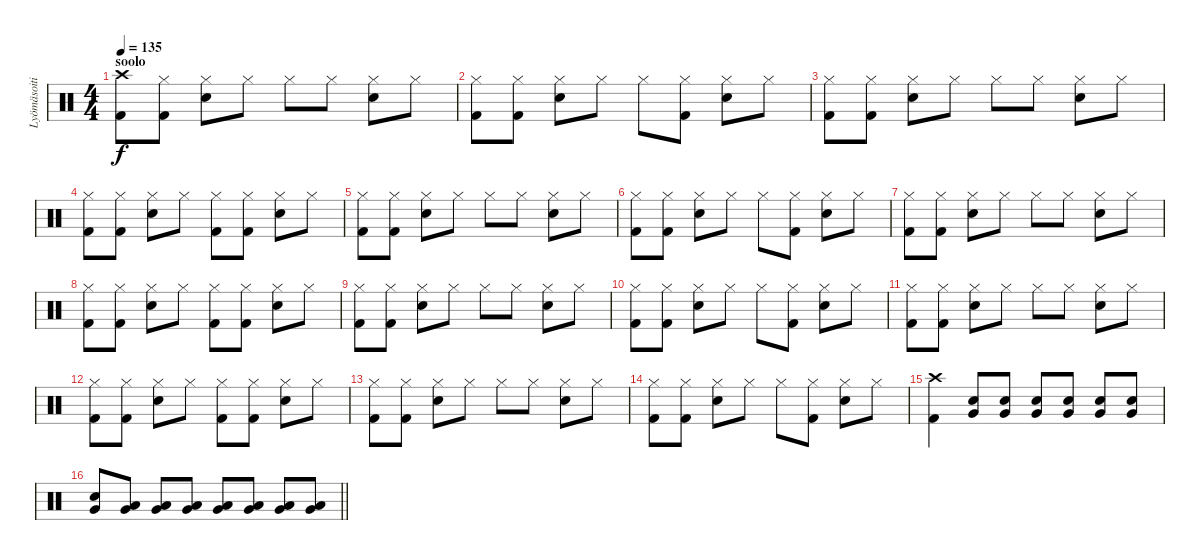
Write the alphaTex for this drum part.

\track ("Lyömäsoitin" "Lyömäsoiti") {instrument percussion}
\staff {score}
\articulation defaults
\ts (4 4)
\section ("" "soolo")
\tempo 135
\clef neutral
\ks c
("Crash high (hit)" "Kick (hit) 2").8{dy f} ("Hi-Hat (closed)" "Kick (hit) 2").8 ("Hi-Hat (closed)" "Electric Snare (hit)").8 "Hi-Hat (closed)".8 "Hi-Hat (closed)".8 "Hi-Hat (closed)".8 ("Hi-Hat (closed)" "Electric Snare (hit)").8 "Hi-Hat (closed)".8 |
("Hi-Hat (closed)" "Kick (hit) 2").8 ("Hi-Hat (closed)" "Kick (hit) 2").8 ("Hi-Hat (closed)" "Electric Snare (hit)").8 "Hi-Hat (closed)".8 "Hi-Hat (closed)".8 ("Hi-Hat (closed)" "Kick (hit) 2").8 ("Hi-Hat (closed)" "Electric Snare (hit)").8 "Hi-Hat (closed)".8 |
("Hi-Hat (closed)" "Kick (hit) 2").8 ("Hi-Hat (closed)" "Kick (hit) 2").8 ("Hi-Hat (closed)" "Electric Snare (hit)").8 "Hi-Hat (closed)".8 "Hi-Hat (closed)".8 "Hi-Hat (closed)".8 ("Hi-Hat (closed)" "Electric Snare (hit)").8 "Hi-Hat (closed)".8 |
("Hi-Hat (closed)" "Kick (hit) 2").8 ("Hi-Hat (closed)" "Kick (hit) 2").8 ("Hi-Hat (closed)" "Electric Snare (hit)").8 "Hi-Hat (closed)".8 ("Hi-Hat (closed)" "Kick (hit) 2").8 ("Hi-Hat (closed)" "Kick (hit) 2").8 ("Hi-Hat (closed)" "Electric Snare (hit)").8 "Hi-Hat (closed)".8 |
("Hi-Hat (closed)" "Kick (hit) 2").8 ("Hi-Hat (closed)" "Kick (hit) 2").8 ("Hi-Hat (closed)" "Electric Snare (hit)").8 "Hi-Hat (closed)".8 "Hi-Hat (closed)".8 "Hi-Hat (closed)".8 ("Hi-Hat (closed)" "Electric Snare (hit)").8 "Hi-Hat (closed)".8 |
("Hi-Hat (closed)" "Kick (hit) 2").8 ("Hi-Hat (closed)" "Kick (hit) 2").8 ("Hi-Hat (closed)" "Electric Snare (hit)").8 "Hi-Hat (closed)".8 "Hi-Hat (closed)".8 ("Hi-Hat (closed)" "Kick (hit) 2").8 ("Hi-Hat (closed)" "Electric Snare (hit)").8 "Hi-Hat (closed)".8 |
("Hi-Hat (closed)" "Kick (hit) 2").8 ("Hi-Hat (closed)" "Kick (hit) 2").8 ("Hi-Hat (closed)" "Electric Snare (hit)").8 "Hi-Hat (closed)".8 "Hi-Hat (closed)".8 "Hi-Hat (closed)".8 ("Hi-Hat (closed)" "Electric Snare (hit)").8 "Hi-Hat (closed)".8 |
("Hi-Hat (closed)" "Kick (hit) 2").8 ("Hi-Hat (closed)" "Kick (hit) 2").8 ("Hi-Hat (closed)" "Electric Snare (hit)").8 "Hi-Hat (closed)".8 ("Hi-Hat (closed)" "Kick (hit) 2").8 ("Hi-Hat (closed)" "Kick (hit) 2").8 ("Hi-Hat (closed)" "Electric Snare (hit)").8 "Hi-Hat (closed)".8 |
("Hi-Hat (closed)" "Kick (hit) 2").8 ("Hi-Hat (closed)" "Kick (hit) 2").8 ("Hi-Hat (closed)" "Electric Snare (hit)").8 "Hi-Hat (closed)".8 "Hi-Hat (closed)".8 "Hi-Hat (closed)".8 ("Hi-Hat (closed)" "Electric Snare (hit)").8 "Hi-Hat (closed)".8 |
("Hi-Hat (closed)" "Kick (hit) 2").8 ("Hi-Hat (closed)" "Kick (hit) 2").8 ("Hi-Hat (closed)" "Electric Snare (hit)").8 "Hi-Hat (closed)".8 "Hi-Hat (closed)".8 ("Hi-Hat (closed)" "Kick (hit) 2").8 ("Hi-Hat (closed)" "Electric Snare (hit)").8 "Hi-Hat (closed)".8 |
("Hi-Hat (closed)" "Kick (hit) 2").8 ("Hi-Hat (closed)" "Kick (hit) 2").8 ("Hi-Hat (closed)" "Electric Snare (hit)").8 "Hi-Hat (closed)".8 "Hi-Hat (closed)".8 "Hi-Hat (closed)".8 ("Hi-Hat (closed)" "Electric Snare (hit)").8 "Hi-Hat (closed)".8 |
("Hi-Hat (closed)" "Kick (hit) 2").8 ("Hi-Hat (closed)" "Kick (hit) 2").8 ("Hi-Hat (closed)" "Electric Snare (hit)").8 "Hi-Hat (closed)".8 ("Hi-Hat (closed)" "Kick (hit) 2").8 ("Hi-Hat (closed)" "Kick (hit) 2").8 ("Hi-Hat (closed)" "Electric Snare (hit)").8 "Hi-Hat (closed)".8 |
("Hi-Hat (closed)" "Kick (hit) 2").8 ("Hi-Hat (closed)" "Kick (hit) 2").8 ("Hi-Hat (closed)" "Electric Snare (hit)").8 "Hi-Hat (closed)".8 "Hi-Hat (closed)".8 "Hi-Hat (closed)".8 ("Hi-Hat (closed)" "Electric Snare (hit)").8 "Hi-Hat (closed)".8 |
("Hi-Hat (closed)" "Kick (hit) 2").8 ("Hi-Hat (closed)" "Kick (hit) 2").8 ("Hi-Hat (closed)" "Electric Snare (hit)").8 "Hi-Hat (closed)".8 "Hi-Hat (closed)".8 ("Hi-Hat (closed)" "Kick (hit) 2").8 ("Hi-Hat (closed)" "Electric Snare (hit)").8 "Hi-Hat (closed)".8 |
("Crash high (hit)" "Kick (hit) 2").4 ("Electric Snare (hit)" "Very Low Tom (hit)").8 ("Electric Snare (hit)" "Very Low Tom (hit)").8 ("Electric Snare (hit)" "Very Low Tom (hit)").8 ("Electric Snare (hit)" "Very Low Tom (hit)").8 ("Electric Snare (hit)" "Very Low Tom (hit)").8 ("Electric Snare (hit)" "Very Low Tom (hit)").8 |
\barLineRight lightlight
("Electric Snare (hit)" "Very Low Tom (hit)").8 ("Very Low Tom (hit)" "Low Tom (hit)").8 ("Very Low Tom (hit)" "Low Tom (hit)").8 ("Very Low Tom (hit)" "Low Tom (hit)").8 ("Very Low Tom (hit)" "Low Tom (hit)").8 ("Very Low Tom (hit)" "Low Tom (hit)").8 ("Very Low Tom (hit)" "Low Tom (hit)").8 ("Very Low Tom (hit)" "Low Tom (hit)").8
